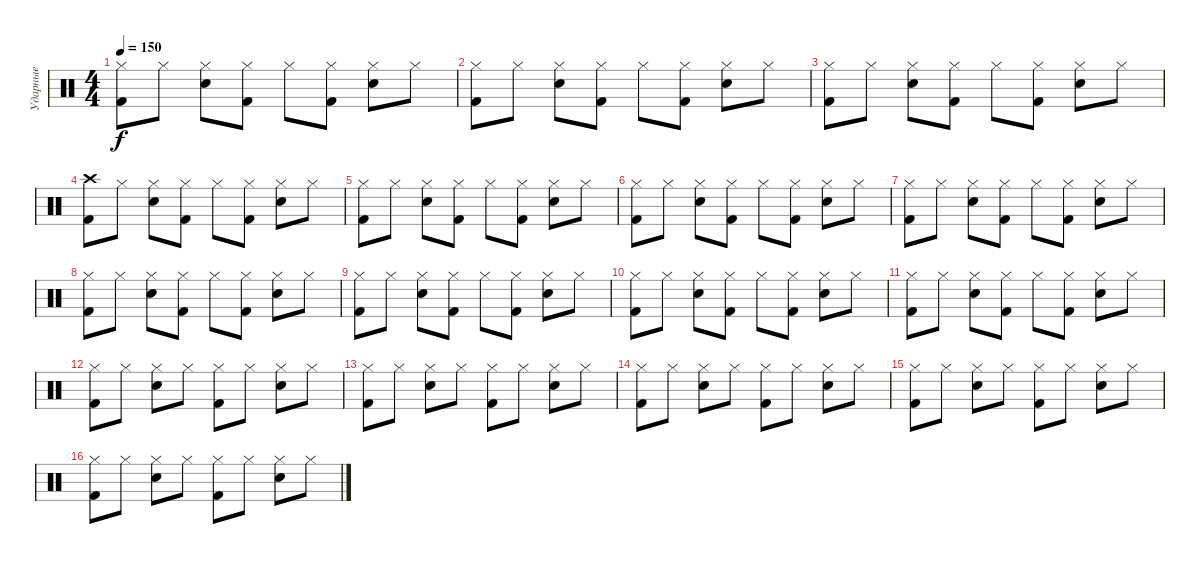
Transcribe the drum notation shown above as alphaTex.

\track ("Ударные" "Ударные") {instrument percussion}
\staff {score}
\articulation defaults
\ts (4 4)
\tempo 150
\clef neutral
\ks c
("Hi-Hat (closed)" "Kick (hit) 2").8{dy f} "Hi-Hat (closed)".8 ("Hi-Hat (closed)" "Snare (hit) 2").8 ("Hi-Hat (closed)" "Kick (hit) 2").8 "Hi-Hat (closed)".8 ("Hi-Hat (closed)" "Kick (hit) 2").8 ("Hi-Hat (closed)" "Snare (hit) 2").8 "Hi-Hat (closed)".8 |
("Hi-Hat (closed)" "Kick (hit) 2").8 "Hi-Hat (closed)".8 ("Hi-Hat (closed)" "Snare (hit) 2").8 ("Hi-Hat (closed)" "Kick (hit) 2").8 "Hi-Hat (closed)".8 ("Hi-Hat (closed)" "Kick (hit) 2").8 ("Hi-Hat (closed)" "Snare (hit) 2").8 "Hi-Hat (closed)".8 |
("Hi-Hat (closed)" "Kick (hit) 2").8 "Hi-Hat (closed)".8 ("Hi-Hat (closed)" "Snare (hit) 2").8 ("Hi-Hat (closed)" "Kick (hit) 2").8 "Hi-Hat (closed)".8 ("Hi-Hat (closed)" "Kick (hit) 2").8 ("Hi-Hat (closed)" "Snare (hit) 2").8 "Hi-Hat (closed)".8 |
("Crash high (hit)" "Kick (hit) 2").8 "Hi-Hat (closed)".8 ("Hi-Hat (closed)" "Snare (hit) 2").8 ("Hi-Hat (closed)" "Kick (hit) 2").8 "Hi-Hat (closed)".8 ("Hi-Hat (closed)" "Kick (hit) 2").8 ("Hi-Hat (closed)" "Snare (hit) 2").8 "Hi-Hat (closed)".8 |
("Hi-Hat (closed)" "Kick (hit) 2").8 "Hi-Hat (closed)".8 ("Hi-Hat (closed)" "Snare (hit) 2").8 ("Hi-Hat (closed)" "Kick (hit) 2").8 "Hi-Hat (closed)".8 ("Hi-Hat (closed)" "Kick (hit) 2").8 ("Hi-Hat (closed)" "Snare (hit) 2").8 "Hi-Hat (closed)".8 |
("Hi-Hat (closed)" "Kick (hit) 2").8 "Hi-Hat (closed)".8 ("Hi-Hat (closed)" "Snare (hit) 2").8 ("Hi-Hat (closed)" "Kick (hit) 2").8 "Hi-Hat (closed)".8 ("Hi-Hat (closed)" "Kick (hit) 2").8 ("Hi-Hat (closed)" "Snare (hit) 2").8 "Hi-Hat (closed)".8 |
("Hi-Hat (closed)" "Kick (hit) 2").8 "Hi-Hat (closed)".8 ("Hi-Hat (closed)" "Snare (hit) 2").8 ("Hi-Hat (closed)" "Kick (hit) 2").8 "Hi-Hat (closed)".8 ("Hi-Hat (closed)" "Kick (hit) 2").8 ("Hi-Hat (closed)" "Snare (hit) 2").8 "Hi-Hat (closed)".8 |
("Hi-Hat (closed)" "Kick (hit) 2").8 "Hi-Hat (closed)".8 ("Hi-Hat (closed)" "Snare (hit) 2").8 ("Hi-Hat (closed)" "Kick (hit) 2").8 "Hi-Hat (closed)".8 ("Hi-Hat (closed)" "Kick (hit) 2").8 ("Hi-Hat (closed)" "Snare (hit) 2").8 "Hi-Hat (closed)".8 |
("Hi-Hat (closed)" "Kick (hit) 2").8 "Hi-Hat (closed)".8 ("Hi-Hat (closed)" "Snare (hit) 2").8 ("Hi-Hat (closed)" "Kick (hit) 2").8 "Hi-Hat (closed)".8 ("Hi-Hat (closed)" "Kick (hit) 2").8 ("Hi-Hat (closed)" "Snare (hit) 2").8 "Hi-Hat (closed)".8 |
("Hi-Hat (closed)" "Kick (hit) 2").8 "Hi-Hat (closed)".8 ("Hi-Hat (closed)" "Snare (hit) 2").8 ("Hi-Hat (closed)" "Kick (hit) 2").8 "Hi-Hat (closed)".8 ("Hi-Hat (closed)" "Kick (hit) 2").8 ("Hi-Hat (closed)" "Snare (hit) 2").8 "Hi-Hat (closed)".8 |
("Hi-Hat (closed)" "Kick (hit) 2").8 "Hi-Hat (closed)".8 ("Hi-Hat (closed)" "Snare (hit) 2").8 ("Hi-Hat (closed)" "Kick (hit) 2").8 "Hi-Hat (closed)".8 ("Hi-Hat (closed)" "Kick (hit) 2").8 ("Hi-Hat (closed)" "Snare (hit) 2").8 "Hi-Hat (closed)".8 |
("Hi-Hat (closed)" "Kick (hit) 2").8 "Hi-Hat (closed)".8 ("Hi-Hat (closed)" "Snare (hit) 2").8 "Hi-Hat (closed)".8 ("Hi-Hat (closed)" "Kick (hit) 2").8 "Hi-Hat (closed)".8 ("Hi-Hat (closed)" "Snare (hit) 2").8 "Hi-Hat (closed)".8 |
("Hi-Hat (closed)" "Kick (hit) 2").8 "Hi-Hat (closed)".8 ("Hi-Hat (closed)" "Snare (hit) 2").8 "Hi-Hat (closed)".8 ("Hi-Hat (closed)" "Kick (hit) 2").8 "Hi-Hat (closed)".8 ("Hi-Hat (closed)" "Snare (hit) 2").8 "Hi-Hat (closed)".8 |
("Hi-Hat (closed)" "Kick (hit) 2").8 "Hi-Hat (closed)".8 ("Hi-Hat (closed)" "Snare (hit) 2").8 "Hi-Hat (closed)".8 ("Hi-Hat (closed)" "Kick (hit) 2").8 "Hi-Hat (closed)".8 ("Hi-Hat (closed)" "Snare (hit) 2").8 "Hi-Hat (closed)".8 |
("Hi-Hat (closed)" "Kick (hit) 2").8 "Hi-Hat (closed)".8 ("Hi-Hat (closed)" "Snare (hit) 2").8 "Hi-Hat (closed)".8 ("Hi-Hat (closed)" "Kick (hit) 2").8 "Hi-Hat (closed)".8 ("Hi-Hat (closed)" "Snare (hit) 2").8 "Hi-Hat (closed)".8 |
("Hi-Hat (closed)" "Kick (hit) 2").8 "Hi-Hat (closed)".8 ("Hi-Hat (closed)" "Snare (hit) 2").8 "Hi-Hat (closed)".8 ("Hi-Hat (closed)" "Kick (hit) 2").8 "Hi-Hat (closed)".8 ("Hi-Hat (closed)" "Snare (hit) 2").8 "Hi-Hat (closed)".8
